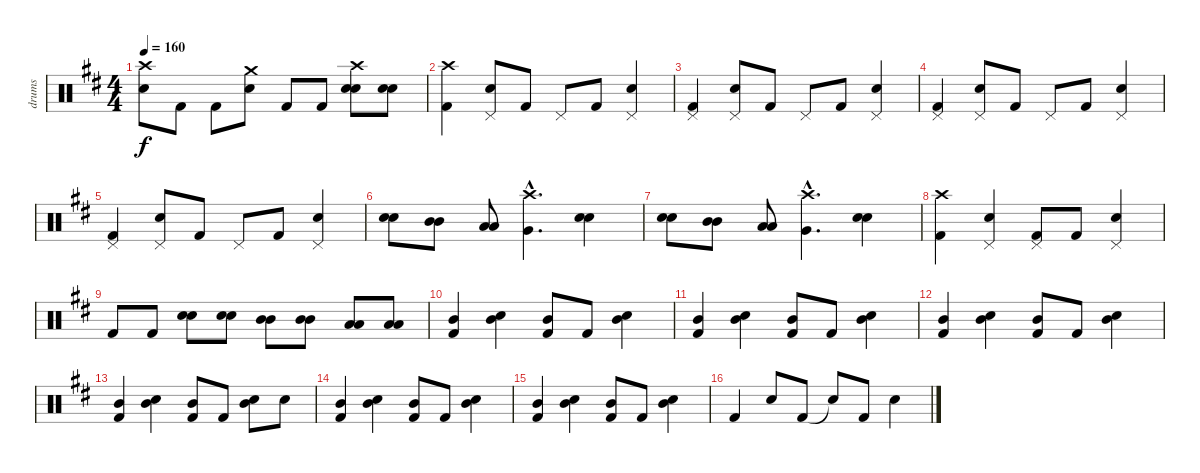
\track ("drums" "drums") {instrument percussion}
\staff {score}
\articulation defaults
\ts (4 4)
\tempo 160
\clef neutral
\ks bminor
("Crash high (hit)" "Snare (hit) 2").8{dy f} "Kick (hit) 2".8 "Kick (hit) 2".8 ("Crash medium (hit)" "Snare (hit) 2").8 "Kick (hit) 2".8 "Kick (hit) 2".8 ("Crash high (hit)" "Snare (hit) 2" "Snare (hit) 2").8 ("Snare (hit) 2" "Snare (hit) 2").8 |
("Crash high (hit)" "Kick (hit) 2").4 ("Pedal Hi-Hat (hit)" "Snare (hit) 2").8 "Kick (hit) 2".8 "Pedal Hi-Hat (hit)".8 "Kick (hit) 2".8 ("Pedal Hi-Hat (hit)" "Snare (hit) 2").4 |
("Pedal Hi-Hat (hit)" "Kick (hit) 2").4 ("Pedal Hi-Hat (hit)" "Snare (hit) 2").8 "Kick (hit) 2".8 "Pedal Hi-Hat (hit)".8 "Kick (hit) 2".8 ("Pedal Hi-Hat (hit)" "Snare (hit) 2").4 |
("Pedal Hi-Hat (hit)" "Kick (hit) 2").4 ("Pedal Hi-Hat (hit)" "Snare (hit) 2").8 "Kick (hit) 2".8 "Pedal Hi-Hat (hit)".8 "Kick (hit) 2".8 ("Pedal Hi-Hat (hit)" "Snare (hit) 2").4 |
("Pedal Hi-Hat (hit)" "Kick (hit) 2").4 ("Pedal Hi-Hat (hit)" "Snare (hit) 2").8 "Kick (hit) 2".8 "Pedal Hi-Hat (hit)".8 "Kick (hit) 2".8 ("Pedal Hi-Hat (hit)" "Snare (hit) 2").4 |
("Snare (hit) 2" "Snare (hit) 2").8 ("Mid Tom (hit)" "Mid Tom (hit)").8 ("Low Tom (hit)" "Low Tom (hit)").8 ("Crash high (hit)"{hac} "Very Low Tom (hit)"{hac}).4{d} ("Snare (hit) 2" "Snare (hit) 2").4 |
("Snare (hit) 2" "Snare (hit) 2").8 ("Mid Tom (hit)" "Mid Tom (hit)").8 ("Low Tom (hit)" "Low Tom (hit)").8 ("Crash high (hit)"{hac} "Very Low Tom (hit)"{hac}).4{d} ("Snare (hit) 2" "Snare (hit) 2").4 |
("Crash high (hit)" "Kick (hit) 2").4 ("Pedal Hi-Hat (hit)" "Snare (hit) 2").4 ("Pedal Hi-Hat (hit)" "Kick (hit) 2").8 "Kick (hit) 2".8 ("Pedal Hi-Hat (hit)" "Snare (hit) 2").4 |
"Kick (hit) 2".8 "Kick (hit) 2".8 ("Snare (hit) 2" "Snare (hit) 2").8 ("Snare (hit) 2" "Snare (hit) 2").8 ("Mid Tom (hit)" "Mid Tom (hit)").8 ("Mid Tom (hit)" "Mid Tom (hit)").8 ("Low Tom (hit)" "Low Tom (hit)").8 ("Low Tom (hit)" "Low Tom (hit)").8 |
("Mid Tom (hit)" "Kick (hit) 2").4 ("Mid Tom (hit)" "Snare (hit) 2").4 ("Mid Tom (hit)" "Kick (hit) 2").8 "Kick (hit) 2".8 ("Mid Tom (hit)" "Snare (hit) 2").4 |
("Mid Tom (hit)" "Kick (hit) 2").4 ("Mid Tom (hit)" "Snare (hit) 2").4 ("Mid Tom (hit)" "Kick (hit) 2").8 "Kick (hit) 2".8 ("Mid Tom (hit)" "Snare (hit) 2").4 |
("Mid Tom (hit)" "Kick (hit) 2").4 ("Mid Tom (hit)" "Snare (hit) 2").4 ("Mid Tom (hit)" "Kick (hit) 2").8 "Kick (hit) 2".8 ("Mid Tom (hit)" "Snare (hit) 2").4 |
("Mid Tom (hit)" "Kick (hit) 2").4 ("Mid Tom (hit)" "Snare (hit) 2").4 ("Mid Tom (hit)" "Kick (hit) 2").8 "Kick (hit) 2".8 ("Mid Tom (hit)" "Snare (hit) 2").8 "Snare (hit) 2".8 |
("Mid Tom (hit)" "Kick (hit) 2").4 ("Mid Tom (hit)" "Snare (hit) 2").4 ("Mid Tom (hit)" "Kick (hit) 2").8 "Kick (hit) 2".8 ("Mid Tom (hit)" "Snare (hit) 2").4 |
("Mid Tom (hit)" "Kick (hit) 2").4 ("Mid Tom (hit)" "Snare (hit) 2").4 ("Mid Tom (hit)" "Kick (hit) 2").8 "Kick (hit) 2".8 ("Mid Tom (hit)" "Snare (hit) 2").4 |
"Kick (hit) 2".4 "Snare (hit) 2".8 "Kick (hit) 2".8 "Snare (hit)"{t}.8 "Kick (hit) 2".8 "Snare (hit) 2".4
